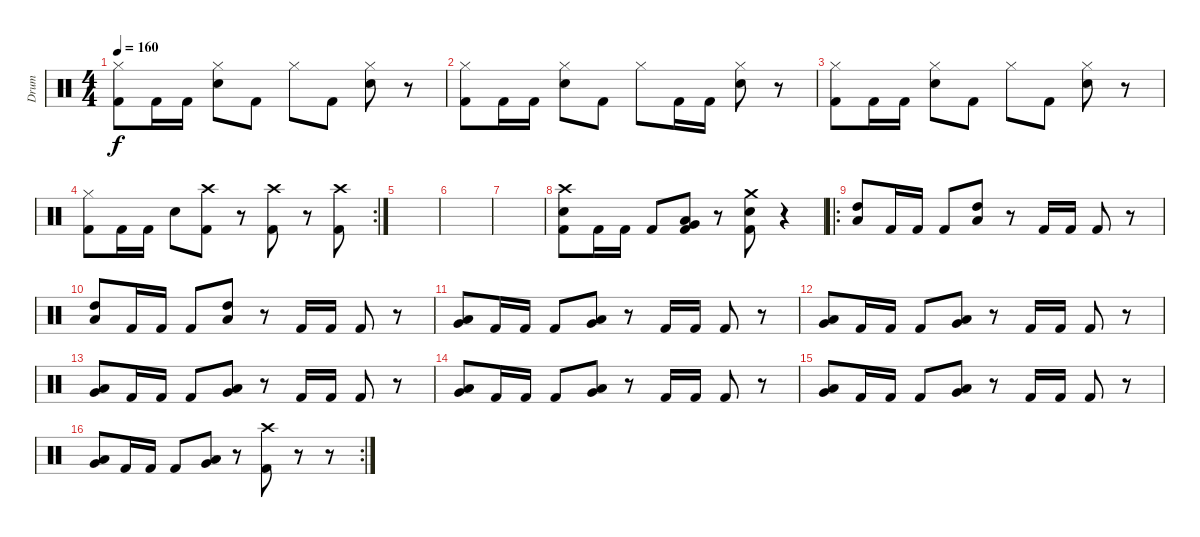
\track ("Drum" "Drum") {instrument percussion}
\staff {score}
\articulation defaults
\ts (4 4)
\tempo 160
\clef neutral
\ks c
("Hi-Hat (closed)" "Kick (hit) 2").8{dy f} "Kick (hit) 2".16 "Kick (hit) 2".16 ("Hi-Hat (closed)" "Electric Snare (hit)").8 "Kick (hit) 2".8 "Hi-Hat (closed)".8 "Kick (hit) 2".8 ("Hi-Hat (closed)" "Electric Snare (hit)").8 r.8 |
("Hi-Hat (closed)" "Kick (hit) 2").8 "Kick (hit) 2".16 "Kick (hit) 2".16 ("Hi-Hat (closed)" "Electric Snare (hit)").8 "Kick (hit) 2".8 "Hi-Hat (closed)".8 "Kick (hit) 2".16 "Kick (hit) 2".16 ("Hi-Hat (closed)" "Electric Snare (hit)").8 r.8 |
("Hi-Hat (closed)" "Kick (hit) 2").8 "Kick (hit) 2".16 "Kick (hit) 2".16 ("Hi-Hat (closed)" "Electric Snare (hit)").8 "Kick (hit) 2".8 "Hi-Hat (closed)".8 "Kick (hit) 2".8 ("Hi-Hat (closed)" "Electric Snare (hit)").8 r.8 |
\rc 2
("Hi-Hat (closed)" "Kick (hit) 2").8 "Kick (hit) 2".16 "Kick (hit) 2".16 "Electric Snare (hit)".8 ("Crash high (hit)" "Kick (hit) 2").8 r.8 ("Crash high (hit)" "Kick (hit) 2").8 r.8 ("Crash high (hit)" "Kick (hit) 2").8 |
|
|
|
("Crash high (hit)" "Electric Snare (hit)" "Kick (hit) 2").8 "Kick (hit) 2".16 "Kick (hit) 2".16 "Kick (hit) 2".8 ("Low Tom (hit)" "Very Low Tom (hit)" "Kick (hit) 2").8 r.8 ("Crash medium (hit)" "Electric Snare (hit)" "Kick (hit) 2").8 r.4 |
\ro
("High Tom (hit)" "Low Tom (hit)").8 "Kick (hit) 2".16 "Kick (hit) 2".16 "Kick (hit) 2".8 ("High Tom (hit)" "Low Tom (hit)").8 r.8 "Kick (hit) 2".16 "Kick (hit) 2".16 "Kick (hit) 2".8 r.8 |
("High Tom (hit)" "Low Tom (hit)").8 "Kick (hit) 2".16 "Kick (hit) 2".16 "Kick (hit) 2".8 ("High Tom (hit)" "Low Tom (hit)").8 r.8 "Kick (hit) 2".16 "Kick (hit) 2".16 "Kick (hit) 2".8 r.8 |
("Low Tom (hit)" "Very Low Tom (hit)").8 "Kick (hit) 2".16 "Kick (hit) 2".16 "Kick (hit) 2".8 ("Low Tom (hit)" "Very Low Tom (hit)").8 r.8 "Kick (hit) 2".16 "Kick (hit) 2".16 "Kick (hit) 2".8 r.8 |
("Low Tom (hit)" "Very Low Tom (hit)").8 "Kick (hit) 2".16 "Kick (hit) 2".16 "Kick (hit) 2".8 ("Low Tom (hit)" "Very Low Tom (hit)").8 r.8 "Kick (hit) 2".16 "Kick (hit) 2".16 "Kick (hit) 2".8 r.8 |
("Very Low Tom (hit)" "Low Floor Tom (hit)").8 "Kick (hit) 2".16 "Kick (hit) 2".16 "Kick (hit) 2".8 ("Very Low Tom (hit)" "Low Floor Tom (hit)").8 r.8 "Kick (hit) 2".16 "Kick (hit) 2".16 "Kick (hit) 2".8 r.8 |
("Very Low Tom (hit)" "Low Floor Tom (hit)").8 "Kick (hit) 2".16 "Kick (hit) 2".16 "Kick (hit) 2".8 ("Very Low Tom (hit)" "Low Floor Tom (hit)").8 r.8 "Kick (hit) 2".16 "Kick (hit) 2".16 "Kick (hit) 2".8 r.8 |
("Low Tom (hit)" "Very Low Tom (hit)").8 "Kick (hit) 2".16 "Kick (hit) 2".16 "Kick (hit) 2".8 ("Low Tom (hit)" "Very Low Tom (hit)").8 r.8 "Kick (hit) 2".16 "Kick (hit) 2".16 "Kick (hit) 2".8 r.8 |
\rc 2
("Low Tom (hit)" "Very Low Tom (hit)").8 "Kick (hit) 2".16 "Kick (hit) 2".16 "Kick (hit) 2".8 ("Low Tom (hit)" "Very Low Tom (hit)").8 r.8 ("Crash high (hit)" "Kick (hit) 2").8 r.8 r.8
